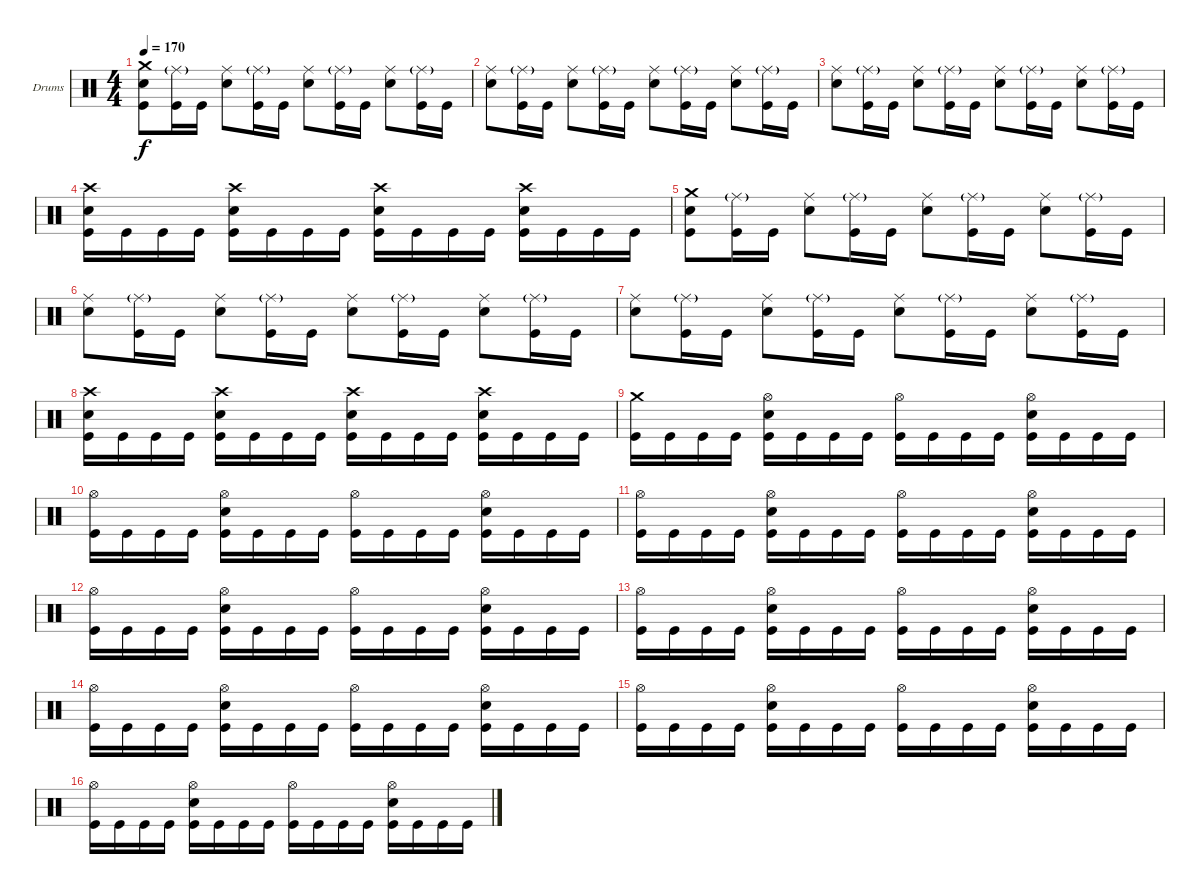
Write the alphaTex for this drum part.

\bracketExtendMode groupsimilarinstruments
\firstSystemTrackNameOrientation horizontal
\otherSystemsTrackNameOrientation horizontal
\track ("Дмитрий Кривенков" "Drums") {instrument percussion}
\staff {score}
\articulation defaults
\ts (4 4)
\tempo 170
\clef neutral
\ks c
("Crash medium (hit)" "Snare (hit) 2" "Kick (hit)").8{dy f} ("Ride (middle)"{g} "Kick (hit)").16 "Kick (hit)".16 ("Ride (middle)" "Snare (hit) 2").8 ("Ride (middle)"{g} "Kick (hit)").16 "Kick (hit)".16 ("Ride (middle)" "Snare (hit) 2").8 ("Ride (middle)"{g} "Kick (hit)").16 "Kick (hit)".16 ("Ride (middle)" "Snare (hit) 2").8 ("Ride (middle)"{g} "Kick (hit)").16 "Kick (hit)".16 |
("Ride (middle)" "Snare (hit) 2").8 ("Ride (middle)"{g} "Kick (hit)").16 "Kick (hit)".16 ("Ride (middle)" "Snare (hit) 2").8 ("Ride (middle)"{g} "Kick (hit)").16 "Kick (hit)".16 ("Ride (middle)" "Snare (hit) 2").8 ("Ride (middle)"{g} "Kick (hit)").16 "Kick (hit)".16 ("Ride (middle)" "Snare (hit) 2").8 ("Ride (middle)"{g} "Kick (hit)").16 "Kick (hit)".16 |
("Ride (middle)" "Snare (hit) 2").8 ("Ride (middle)"{g} "Kick (hit)").16 "Kick (hit)".16 ("Ride (middle)" "Snare (hit) 2").8 ("Ride (middle)"{g} "Kick (hit)").16 "Kick (hit)".16 ("Ride (middle)" "Snare (hit) 2").8 ("Ride (middle)"{g} "Kick (hit)").16 "Kick (hit)".16 ("Ride (middle)" "Snare (hit) 2").8 ("Ride (middle)"{g} "Kick (hit)").16 "Kick (hit)".16 |
("Crash high (hit)" "Snare (hit) 2" "Kick (hit)").16 "Kick (hit)".16 "Kick (hit)".16 "Kick (hit)".16 ("Crash high (hit)" "Snare (hit) 2" "Kick (hit)").16 "Kick (hit)".16 "Kick (hit)".16 "Kick (hit)".16 ("Crash high (hit)" "Snare (hit) 2" "Kick (hit)").16 "Kick (hit)".16 "Kick (hit)".16 "Kick (hit)".16 ("Crash high (hit)" "Snare (hit) 2" "Kick (hit)").16 "Kick (hit)".16 "Kick (hit)".16 "Kick (hit)".16 |
("Crash medium (hit)" "Snare (hit) 2" "Kick (hit)").8 ("Ride (middle)"{g} "Kick (hit)").16 "Kick (hit)".16 ("Ride (middle)" "Snare (hit) 2").8 ("Ride (middle)"{g} "Kick (hit)").16 "Kick (hit)".16 ("Ride (middle)" "Snare (hit) 2").8 ("Ride (middle)"{g} "Kick (hit)").16 "Kick (hit)".16 ("Ride (middle)" "Snare (hit) 2").8 ("Ride (middle)"{g} "Kick (hit)").16 "Kick (hit)".16 |
("Ride (middle)" "Snare (hit) 2").8 ("Ride (middle)"{g} "Kick (hit)").16 "Kick (hit)".16 ("Ride (middle)" "Snare (hit) 2").8 ("Ride (middle)"{g} "Kick (hit)").16 "Kick (hit)".16 ("Ride (middle)" "Snare (hit) 2").8 ("Ride (middle)"{g} "Kick (hit)").16 "Kick (hit)".16 ("Ride (middle)" "Snare (hit) 2").8 ("Ride (middle)"{g} "Kick (hit)").16 "Kick (hit)".16 |
("Ride (middle)" "Snare (hit) 2").8 ("Ride (middle)"{g} "Kick (hit)").16 "Kick (hit)".16 ("Ride (middle)" "Snare (hit) 2").8 ("Ride (middle)"{g} "Kick (hit)").16 "Kick (hit)".16 ("Ride (middle)" "Snare (hit) 2").8 ("Ride (middle)"{g} "Kick (hit)").16 "Kick (hit)".16 ("Ride (middle)" "Snare (hit) 2").8 ("Ride (middle)"{g} "Kick (hit)").16 "Kick (hit)".16 |
("Crash high (hit)" "Snare (hit) 2" "Kick (hit)").16 "Kick (hit)".16 "Kick (hit)".16 "Kick (hit)".16 ("Crash high (hit)" "Snare (hit) 2" "Kick (hit)").16 "Kick (hit)".16 "Kick (hit)".16 "Kick (hit)".16 ("Crash high (hit)" "Snare (hit) 2" "Kick (hit)").16 "Kick (hit)".16 "Kick (hit)".16 "Kick (hit)".16 ("Crash high (hit)" "Snare (hit) 2" "Kick (hit)").16 "Kick (hit)".16 "Kick (hit)".16 "Kick (hit)".16 |
("Crash medium (hit)" "Kick (hit)").16 "Kick (hit)".16 "Kick (hit)".16 "Kick (hit)".16 ("Hi-Hat (open)" "Snare (hit) 2" "Kick (hit)").16 "Kick (hit)".16 "Kick (hit)".16 "Kick (hit)".16 ("Hi-Hat (open)" "Kick (hit)").16 "Kick (hit)".16 "Kick (hit)".16 "Kick (hit)".16 ("Hi-Hat (open)" "Snare (hit) 2" "Kick (hit)").16 "Kick (hit)".16 "Kick (hit)".16 "Kick (hit)".16 |
("Hi-Hat (open)" "Kick (hit)").16 "Kick (hit)".16 "Kick (hit)".16 "Kick (hit)".16 ("Hi-Hat (open)" "Snare (hit) 2" "Kick (hit)").16 "Kick (hit)".16 "Kick (hit)".16 "Kick (hit)".16 ("Hi-Hat (open)" "Kick (hit)").16 "Kick (hit)".16 "Kick (hit)".16 "Kick (hit)".16 ("Hi-Hat (open)" "Snare (hit) 2" "Kick (hit)").16 "Kick (hit)".16 "Kick (hit)".16 "Kick (hit)".16 |
("Hi-Hat (open)" "Kick (hit)").16 "Kick (hit)".16 "Kick (hit)".16 "Kick (hit)".16 ("Hi-Hat (open)" "Snare (hit) 2" "Kick (hit)").16 "Kick (hit)".16 "Kick (hit)".16 "Kick (hit)".16 ("Hi-Hat (open)" "Kick (hit)").16 "Kick (hit)".16 "Kick (hit)".16 "Kick (hit)".16 ("Hi-Hat (open)" "Snare (hit) 2" "Kick (hit)").16 "Kick (hit)".16 "Kick (hit)".16 "Kick (hit)".16 |
("Hi-Hat (open)" "Kick (hit)").16 "Kick (hit)".16 "Kick (hit)".16 "Kick (hit)".16 ("Hi-Hat (open)" "Snare (hit) 2" "Kick (hit)").16 "Kick (hit)".16 "Kick (hit)".16 "Kick (hit)".16 ("Hi-Hat (open)" "Kick (hit)").16 "Kick (hit)".16 "Kick (hit)".16 "Kick (hit)".16 ("Hi-Hat (open)" "Snare (hit) 2" "Kick (hit)").16 "Kick (hit)".16 "Kick (hit)".16 "Kick (hit)".16 |
("Hi-Hat (open)" "Kick (hit)").16 "Kick (hit)".16 "Kick (hit)".16 "Kick (hit)".16 ("Hi-Hat (open)" "Snare (hit) 2" "Kick (hit)").16 "Kick (hit)".16 "Kick (hit)".16 "Kick (hit)".16 ("Hi-Hat (open)" "Kick (hit)").16 "Kick (hit)".16 "Kick (hit)".16 "Kick (hit)".16 ("Hi-Hat (open)" "Snare (hit) 2" "Kick (hit)").16 "Kick (hit)".16 "Kick (hit)".16 "Kick (hit)".16 |
("Hi-Hat (open)" "Kick (hit)").16 "Kick (hit)".16 "Kick (hit)".16 "Kick (hit)".16 ("Hi-Hat (open)" "Snare (hit) 2" "Kick (hit)").16 "Kick (hit)".16 "Kick (hit)".16 "Kick (hit)".16 ("Hi-Hat (open)" "Kick (hit)").16 "Kick (hit)".16 "Kick (hit)".16 "Kick (hit)".16 ("Hi-Hat (open)" "Snare (hit) 2" "Kick (hit)").16 "Kick (hit)".16 "Kick (hit)".16 "Kick (hit)".16 |
("Hi-Hat (open)" "Kick (hit)").16 "Kick (hit)".16 "Kick (hit)".16 "Kick (hit)".16 ("Hi-Hat (open)" "Snare (hit) 2" "Kick (hit)").16 "Kick (hit)".16 "Kick (hit)".16 "Kick (hit)".16 ("Hi-Hat (open)" "Kick (hit)").16 "Kick (hit)".16 "Kick (hit)".16 "Kick (hit)".16 ("Hi-Hat (open)" "Snare (hit) 2" "Kick (hit)").16 "Kick (hit)".16 "Kick (hit)".16 "Kick (hit)".16 |
("Hi-Hat (open)" "Kick (hit)").16 "Kick (hit)".16 "Kick (hit)".16 "Kick (hit)".16 ("Hi-Hat (open)" "Snare (hit) 2" "Kick (hit)").16 "Kick (hit)".16 "Kick (hit)".16 "Kick (hit)".16 ("Hi-Hat (open)" "Kick (hit)").16 "Kick (hit)".16 "Kick (hit)".16 "Kick (hit)".16 ("Hi-Hat (open)" "Snare (hit) 2" "Kick (hit)").16 "Kick (hit)".16 "Kick (hit)".16 "Kick (hit)".16
